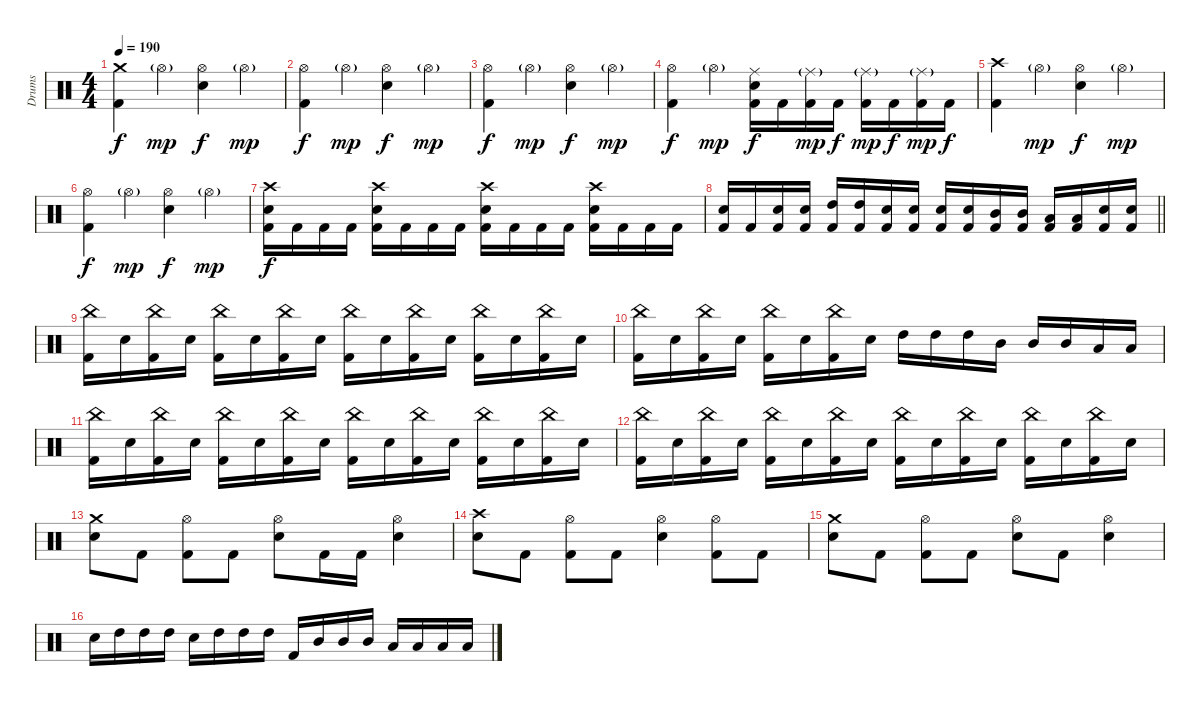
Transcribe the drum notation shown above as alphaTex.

\track ("Drums" "Drums") {instrument percussion}
\staff {score}
\articulation defaults
\ts (4 4)
\tempo 190
\clef neutral
\ks c
("Crash medium (hit)" "Kick (hit) 2").4{dy f} "Hi-Hat (open)"{g}.4{dy mp} ("Hi-Hat (open)" "Snare (hit) 2").4{dy f} "Hi-Hat (open)"{g}.4{dy mp} |
("Hi-Hat (open)" "Kick (hit) 2").4{dy f} "Hi-Hat (open)"{g}.4{dy mp} ("Hi-Hat (open)" "Snare (hit) 2").4{dy f} "Hi-Hat (open)"{g}.4{dy mp} |
("Hi-Hat (open)" "Kick (hit) 2").4{dy f} "Hi-Hat (open)"{g}.4{dy mp} ("Hi-Hat (open)" "Snare (hit) 2").4{dy f} "Hi-Hat (open)"{g}.4{dy mp} |
("Hi-Hat (open)" "Kick (hit) 2").4{dy f} "Hi-Hat (open)"{g}.4{dy mp} ("Ride (middle)" "Snare (hit) 2" "Kick (hit) 2").16{dy f} "Kick (hit) 2".16 ("Ride (middle)"{g} "Kick (hit) 2").16{dy mp} "Kick (hit) 2".16{dy f} ("Ride (middle)"{g} "Kick (hit) 2").16{dy mp} "Kick (hit) 2".16{dy f} ("Ride (middle)"{g} "Kick (hit) 2").16{dy mp} "Kick (hit) 2".16{dy f} |
("Crash high (hit)" "Kick (hit) 2").4 "Hi-Hat (open)"{g}.4{dy mp} ("Hi-Hat (open)" "Snare (hit) 2").4{dy f} "Hi-Hat (open)"{g}.4{dy mp} |
("Hi-Hat (open)" "Kick (hit) 2").4{dy f} "Hi-Hat (open)"{g}.4{dy mp} ("Hi-Hat (open)" "Snare (hit) 2").4{dy f} "Hi-Hat (open)"{g}.4{dy mp} |
("Crash high (hit)" "Snare (hit) 2" "Kick (hit) 2").16{dy f} "Kick (hit) 2".16 "Kick (hit) 2".16 "Kick (hit) 2".16 ("Crash high (hit)" "Snare (hit) 2" "Kick (hit) 2").16 "Kick (hit) 2".16 "Kick (hit) 2".16 "Kick (hit) 2".16 ("Crash high (hit)" "Snare (hit) 2" "Kick (hit) 2").16 "Kick (hit) 2".16 "Kick (hit) 2".16 "Kick (hit) 2".16 ("Crash high (hit)" "Snare (hit) 2" "Kick (hit) 2").16 "Kick (hit) 2".16 "Kick (hit) 2".16 "Kick (hit) 2".16 |
\barLineRight lightlight
("Snare (hit) 2" "Kick (hit) 2").16 "Kick (hit) 2".16 ("Snare (hit) 2" "Kick (hit) 2").16 ("Snare (hit) 2" "Kick (hit) 2").16 ("High Tom (hit)" "Kick (hit) 2").16 ("High Tom (hit)" "Kick (hit) 2").16 ("Snare (hit) 2" "Kick (hit) 2").16 ("Snare (hit) 2" "Kick (hit) 2").16 ("Snare (hit) 2" "Kick (hit) 2").16 ("Snare (hit) 2" "Kick (hit) 2").16 ("Mid Tom (hit)" "Kick (hit) 2").16 ("Mid Tom (hit)" "Kick (hit) 2").16 ("Low Tom (hit)" "Kick (hit) 2").16 ("Low Tom (hit)" "Kick (hit) 2").16 ("Snare (hit) 2" "Kick (hit) 2").16 ("Snare (hit) 2" "Kick (hit) 2").16 |
\section ("" "")
("China (hit)" "Kick (hit) 2").16 "Snare (hit) 2".16 ("China (hit)" "Kick (hit) 2").16 "Snare (hit) 2".16 ("China (hit)" "Kick (hit) 2").16 "Snare (hit) 2".16 ("China (hit)" "Kick (hit) 2").16 "Snare (hit) 2".16 ("China (hit)" "Kick (hit) 2").16 "Snare (hit) 2".16 ("China (hit)" "Kick (hit) 2").16 "Snare (hit) 2".16 ("China (hit)" "Kick (hit) 2").16 "Snare (hit) 2".16 ("China (hit)" "Kick (hit) 2").16 "Snare (hit) 2".16 |
("China (hit)" "Kick (hit) 2").16 "Snare (hit) 2".16 ("China (hit)" "Kick (hit) 2").16 "Snare (hit) 2".16 ("China (hit)" "Kick (hit) 2").16 "Snare (hit) 2".16 ("China (hit)" "Kick (hit) 2").16 "Snare (hit) 2".16 "High Tom (hit)".16 "High Tom (hit)".16 "High Tom (hit)".16 "Mid Tom (hit)".16 "Mid Tom (hit)".16 "Mid Tom (hit)".16 "Low Tom (hit)".16 "Low Tom (hit)".16 |
("China (hit)" "Kick (hit) 2").16 "Snare (hit) 2".16 ("China (hit)" "Kick (hit) 2").16 "Snare (hit) 2".16 ("China (hit)" "Kick (hit) 2").16 "Snare (hit) 2".16 ("China (hit)" "Kick (hit) 2").16 "Snare (hit) 2".16 ("China (hit)" "Kick (hit) 2").16 "Snare (hit) 2".16 ("China (hit)" "Kick (hit) 2").16 "Snare (hit) 2".16 ("China (hit)" "Kick (hit) 2").16 "Snare (hit) 2".16 ("China (hit)" "Kick (hit) 2").16 "Snare (hit) 2".16 |
("China (hit)" "Kick (hit) 2").16 "Snare (hit) 2".16 ("China (hit)" "Kick (hit) 2").16 "Snare (hit) 2".16 ("China (hit)" "Kick (hit) 2").16 "Snare (hit) 2".16 ("China (hit)" "Kick (hit) 2").16 "Snare (hit) 2".16 ("China (hit)" "Kick (hit) 2").16 "Snare (hit) 2".16 ("China (hit)" "Kick (hit) 2").16 "Snare (hit) 2".16 ("China (hit)" "Kick (hit) 2").16 "Snare (hit) 2".16 ("China (hit)" "Kick (hit) 2").16 "Snare (hit) 2".16 |
("Crash medium (hit)" "Snare (hit) 2").8 "Kick (hit) 2".8 ("Hi-Hat (open)" "Kick (hit) 2").8 "Kick (hit) 2".8 ("Hi-Hat (open)" "Snare (hit) 2").8 "Kick (hit) 2".16 "Kick (hit) 2".16 ("Hi-Hat (open)" "Snare (hit) 2").4 |
("Crash high (hit)" "Snare (hit) 2").8 "Kick (hit) 2".8 ("Hi-Hat (open)" "Kick (hit) 2").8 "Kick (hit) 2".8 ("Hi-Hat (open)" "Snare (hit) 2").4 ("Hi-Hat (open)" "Kick (hit) 2").8 "Kick (hit) 2".8 |
("Crash medium (hit)" "Snare (hit) 2").8 "Kick (hit) 2".8 ("Hi-Hat (open)" "Kick (hit) 2").8 "Kick (hit) 2".8 ("Hi-Hat (open)" "Snare (hit) 2").8 "Kick (hit) 2".8 ("Hi-Hat (open)" "Snare (hit) 2").4 |
"Snare (hit) 2".16 "High Tom (hit)".16 "High Tom (hit)".16 "High Tom (hit)".16 "Snare (hit) 2".16 "High Tom (hit)".16 "High Tom (hit)".16 "High Tom (hit)".16 "Kick (hit) 2".16 "Mid Tom (hit)".16 "Mid Tom (hit)".16 "Mid Tom (hit)".16 "Low Tom (hit)".16 "Low Tom (hit)".16 "Low Tom (hit)".16 "Low Tom (hit)".16
